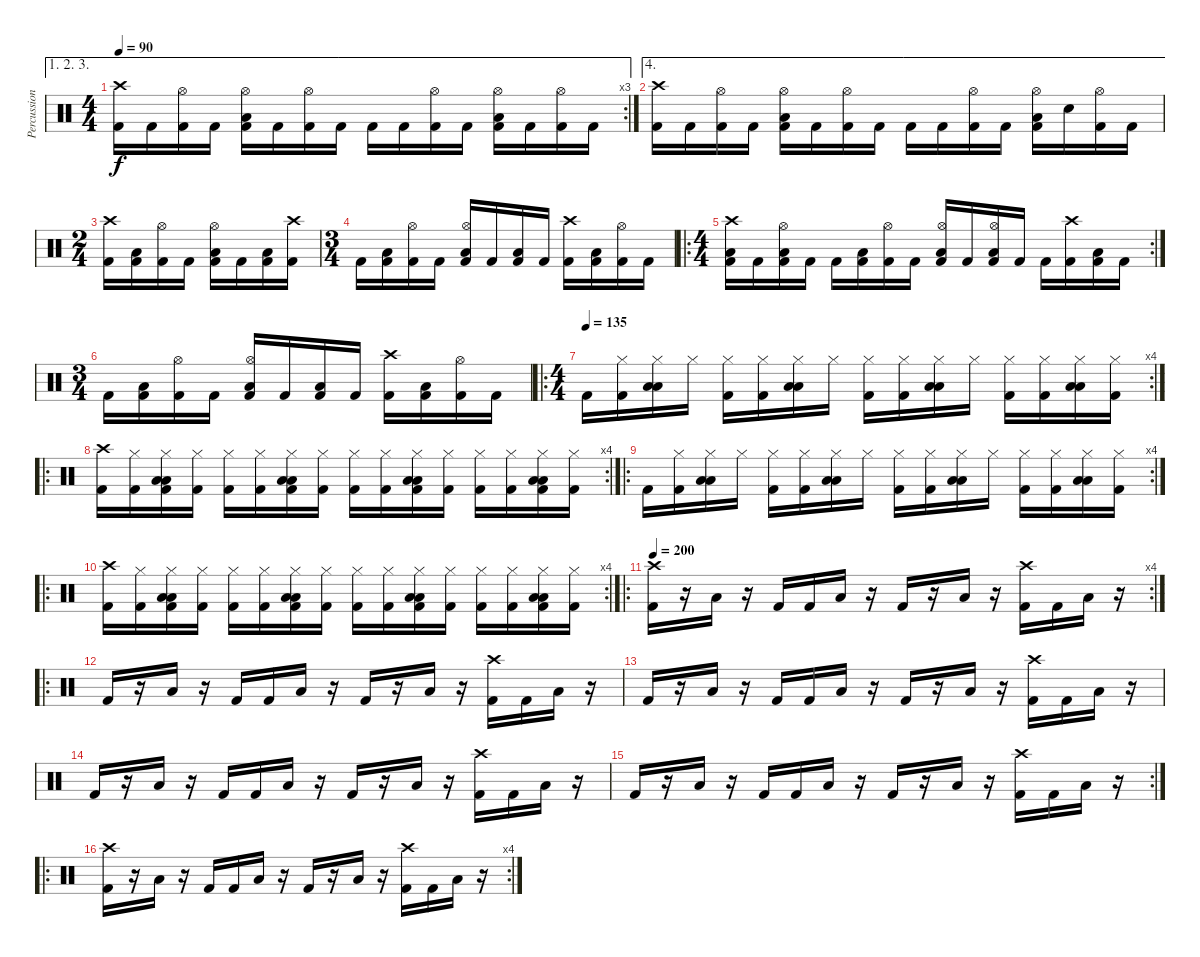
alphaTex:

\track ("Percussioni" "Percussion") {instrument percussion}
\staff {score}
\articulation defaults
\ae (1 2 3)
\rc 3
\ts (4 4)
\tempo 90
\clef neutral
\ks c
("Crash high (hit)" "Kick (hit) 2").16{dy f} "Kick (hit) 2".16 ("Hi-Hat (open)" "Kick (hit) 2").16 "Kick (hit) 2".16 ("Hi-Hat (open)" "Low Floor Tom (hit)" "Kick (hit) 2").16 "Kick (hit) 2".16 ("Hi-Hat (open)" "Kick (hit) 2").16 "Kick (hit) 2".16 "Kick (hit) 2".16 "Kick (hit) 2".16 ("Hi-Hat (open)" "Kick (hit) 2").16 "Kick (hit) 2".16 ("Hi-Hat (open)" "Low Floor Tom (hit)" "Kick (hit) 2").16 "Kick (hit) 2".16 ("Hi-Hat (open)" "Kick (hit) 2").16 "Kick (hit) 2".16 |
\ae 4
("Crash high (hit)" "Kick (hit) 2").16 "Kick (hit) 2".16 ("Hi-Hat (open)" "Kick (hit) 2").16 "Kick (hit) 2".16 ("Hi-Hat (open)" "Low Floor Tom (hit)" "Kick (hit) 2").16 "Kick (hit) 2".16 ("Hi-Hat (open)" "Kick (hit) 2").16 "Kick (hit) 2".16 "Kick (hit) 2".16 "Kick (hit) 2".16 ("Hi-Hat (open)" "Kick (hit) 2").16 "Kick (hit) 2".16 ("Hi-Hat (open)" "Low Floor Tom (hit)" "Kick (hit) 2").16 "Snare (hit)".16 ("Hi-Hat (open)" "Kick (hit) 2").16 "Kick (hit) 2".16 |
\ts (2 4)
("Crash high (hit)" "Kick (hit) 2").16 ("Low Floor Tom (hit)" "Kick (hit) 2").16 ("Hi-Hat (open)" "Kick (hit) 2").16 "Kick (hit) 2".16 ("Hi-Hat (open)" "Low Floor Tom (hit)" "Kick (hit) 2").16 "Kick (hit) 2".16 ("Low Floor Tom (hit)" "Kick (hit) 2").16 ("Crash high (hit)" "Kick (hit) 2").16 |
\ts (3 4)
"Kick (hit) 2".16 ("Low Floor Tom (hit)" "Kick (hit) 2").16 ("Hi-Hat (open)" "Kick (hit) 2").16 "Kick (hit) 2".16 ("Hi-Hat (open)" "Low Floor Tom (hit)" "Kick (hit) 2").16 "Kick (hit) 2".16 ("Low Floor Tom (hit)" "Kick (hit) 2").16 "Kick (hit) 2".16 ("Crash high (hit)" "Kick (hit) 2").16 ("Low Floor Tom (hit)" "Kick (hit) 2").16 ("Hi-Hat (open)" "Kick (hit) 2").16 "Kick (hit) 2".16 |
\ro
\rc 2
\ts (4 4)
("Crash high (hit)" "Low Floor Tom (hit)" "Kick (hit) 2").16 "Kick (hit) 2".16 ("Hi-Hat (open)" "Low Floor Tom (hit)" "Kick (hit) 2").16 "Kick (hit) 2".16 "Kick (hit) 2".16 ("Low Floor Tom (hit)" "Kick (hit) 2").16 ("Hi-Hat (open)" "Kick (hit) 2").16 "Kick (hit) 2".16 ("Hi-Hat (open)" "Low Floor Tom (hit)" "Kick (hit) 2").16 "Kick (hit) 2".16 ("Hi-Hat (open)" "Low Floor Tom (hit)" "Kick (hit) 2").16 "Kick (hit) 2".16 "Kick (hit) 2".16 ("Crash high (hit)" "Kick (hit) 2").16 ("Low Floor Tom (hit)" "Kick (hit) 2").16 "Kick (hit) 2".16 |
\ts (3 4)
"Kick (hit) 2".16 ("Low Floor Tom (hit)" "Kick (hit) 2").16 ("Hi-Hat (open)" "Kick (hit) 2").16 "Kick (hit) 2".16 ("Hi-Hat (open)" "Low Floor Tom (hit)" "Kick (hit) 2").16 "Kick (hit) 2".16 ("Low Floor Tom (hit)" "Kick (hit) 2").16 "Kick (hit) 2".16 ("Crash high (hit)" "Kick (hit) 2").16 ("Low Floor Tom (hit)" "Kick (hit) 2").16 ("Hi-Hat (open)" "Kick (hit) 2").16 "Kick (hit) 2".16 |
\ro
\rc 4
\ts (4 4)
\tempo (135)
"Kick (hit) 2".16 ("Hi-Hat (closed)" "Kick (hit) 2").16 ("Hi-Hat (closed)" "Low Floor Tom (hit)" "Low Floor Tom (hit)").16 "Hi-Hat (closed)".16 ("Hi-Hat (closed)" "Kick (hit) 2").16 ("Hi-Hat (closed)" "Kick (hit) 2").16 ("Hi-Hat (closed)" "Low Floor Tom (hit)" "Low Floor Tom (hit)").16 "Hi-Hat (closed)".16 ("Hi-Hat (closed)" "Kick (hit) 2").16 ("Hi-Hat (closed)" "Kick (hit) 2").16 ("Hi-Hat (closed)" "Low Floor Tom (hit)" "Low Floor Tom (hit)").16 "Hi-Hat (closed)".16 ("Hi-Hat (closed)" "Kick (hit) 2").16 ("Hi-Hat (closed)" "Kick (hit) 2").16 ("Hi-Hat (closed)" "Low Floor Tom (hit)" "Low Floor Tom (hit)").16 ("Hi-Hat (closed)" "Kick (hit) 2").16 |
\ro
\rc 4
("Crash high (hit)" "Kick (hit) 2").16 ("Hi-Hat (closed)" "Kick (hit) 2").16 ("Hi-Hat (closed)" "Low Floor Tom (hit)" "Low Floor Tom (hit)" "Kick (hit) 2").16 ("Hi-Hat (closed)" "Kick (hit) 2").16 ("Hi-Hat (closed)" "Kick (hit) 2").16 ("Hi-Hat (closed)" "Kick (hit) 2").16 ("Hi-Hat (closed)" "Low Floor Tom (hit)" "Low Floor Tom (hit)" "Kick (hit) 2").16 ("Hi-Hat (closed)" "Kick (hit) 2").16 ("Hi-Hat (closed)" "Kick (hit) 2").16 ("Hi-Hat (closed)" "Kick (hit) 2").16 ("Hi-Hat (closed)" "Low Floor Tom (hit)" "Low Floor Tom (hit)" "Kick (hit) 2").16 ("Hi-Hat (closed)" "Kick (hit) 2").16 ("Hi-Hat (closed)" "Kick (hit) 2").16 ("Hi-Hat (closed)" "Kick (hit) 2").16 ("Hi-Hat (closed)" "Low Floor Tom (hit)" "Low Floor Tom (hit)" "Kick (hit) 2").16 ("Hi-Hat (closed)" "Kick (hit) 2").16 |
\ro
\rc 4 "Kick (hit) 2".16
("Hi-Hat (closed)" "Kick (hit) 2").16 ("Hi-Hat (closed)" "Low Floor Tom (hit)" "Low Floor Tom (hit)").16 "Hi-Hat (closed)".16 ("Hi-Hat (closed)" "Kick (hit) 2").16 ("Hi-Hat (closed)" "Kick (hit) 2").16 ("Hi-Hat (closed)" "Low Floor Tom (hit)" "Low Floor Tom (hit)").16 "Hi-Hat (closed)".16 ("Hi-Hat (closed)" "Kick (hit) 2").16 ("Hi-Hat (closed)" "Kick (hit) 2").16 ("Hi-Hat (closed)" "Low Floor Tom (hit)" "Low Floor Tom (hit)").16 "Hi-Hat (closed)".16 ("Hi-Hat (closed)" "Kick (hit) 2").16 ("Hi-Hat (closed)" "Kick (hit) 2").16 ("Hi-Hat (closed)" "Low Floor Tom (hit)" "Low Floor Tom (hit)").16 ("Hi-Hat (closed)" "Kick (hit) 2").16 |
\ro
\rc 4
("Crash high (hit)" "Kick (hit) 2").16 ("Hi-Hat (closed)" "Kick (hit) 2").16 ("Hi-Hat (closed)" "Low Floor Tom (hit)" "Low Floor Tom (hit)" "Kick (hit) 2").16 ("Hi-Hat (closed)" "Kick (hit) 2").16 ("Hi-Hat (closed)" "Kick (hit) 2").16 ("Hi-Hat (closed)" "Kick (hit) 2").16 ("Hi-Hat (closed)" "Low Floor Tom (hit)" "Low Floor Tom (hit)" "Kick (hit) 2").16 ("Hi-Hat (closed)" "Kick (hit) 2").16 ("Hi-Hat (closed)" "Kick (hit) 2").16 ("Hi-Hat (closed)" "Kick (hit) 2").16 ("Hi-Hat (closed)" "Low Floor Tom (hit)" "Low Floor Tom (hit)" "Kick (hit) 2").16 ("Hi-Hat (closed)" "Kick (hit) 2").16 ("Hi-Hat (closed)" "Kick (hit) 2").16 ("Hi-Hat (closed)" "Kick (hit) 2").16 ("Hi-Hat (closed)" "Low Floor Tom (hit)" "Low Floor Tom (hit)" "Kick (hit) 2").16 ("Hi-Hat (closed)" "Kick (hit) 2").16 |
\ro
\rc 4
\tempo 210
\tempo 200
("Crash high (hit)" "Kick (hit) 2").16 r.16 "Low Floor Tom (hit)".16 r.16 "Kick (hit) 2".16 "Kick (hit) 2".16 "Low Floor Tom (hit)".16 r.16 "Kick (hit) 2".16 r.16 "Low Floor Tom (hit)".16 r.16 ("Crash high (hit)" "Kick (hit) 2").16 "Kick (hit) 2".16 "Low Floor Tom (hit)".16 r.16 |
\ro "Kick (hit) 2".16
r.16 "Low Floor Tom (hit)".16 r.16 "Kick (hit) 2".16 "Kick (hit) 2".16 "Low Floor Tom (hit)".16 r.16 "Kick (hit) 2".16 r.16 "Low Floor Tom (hit)".16 r.16 ("Crash high (hit)" "Kick (hit) 2").16 "Kick (hit) 2".16 "Low Floor Tom (hit)".16 r.16 |
"Kick (hit) 2".16 r.16 "Low Floor Tom (hit)".16 r.16 "Kick (hit) 2".16 "Kick (hit) 2".16 "Low Floor Tom (hit)".16 r.16 "Kick (hit) 2".16 r.16 "Low Floor Tom (hit)".16 r.16 ("Crash high (hit)" "Kick (hit) 2").16 "Kick (hit) 2".16 "Low Floor Tom (hit)".16 r.16 |
"Kick (hit) 2".16 r.16 "Low Floor Tom (hit)".16 r.16 "Kick (hit) 2".16 "Kick (hit) 2".16 "Low Floor Tom (hit)".16 r.16 "Kick (hit) 2".16 r.16 "Low Floor Tom (hit)".16 r.16 ("Crash high (hit)" "Kick (hit) 2").16 "Kick (hit) 2".16 "Low Floor Tom (hit)".16 r.16 |
\rc 2 "Kick (hit) 2".16
r.16 "Low Floor Tom (hit)".16 r.16 "Kick (hit) 2".16 "Kick (hit) 2".16 "Low Floor Tom (hit)".16 r.16 "Kick (hit) 2".16 r.16 "Low Floor Tom (hit)".16 r.16 ("Crash high (hit)" "Kick (hit) 2").16 "Kick (hit) 2".16 "Low Floor Tom (hit)".16 r.16 |
\ro
\rc 4
("Crash high (hit)" "Kick (hit) 2").16 r.16 "Low Floor Tom (hit)".16 r.16 "Kick (hit) 2".16 "Kick (hit) 2".16 "Low Floor Tom (hit)".16 r.16 "Kick (hit) 2".16 r.16 "Low Floor Tom (hit)".16 r.16 ("Crash high (hit)" "Kick (hit) 2").16 "Kick (hit) 2".16 "Low Floor Tom (hit)".16 r.16
